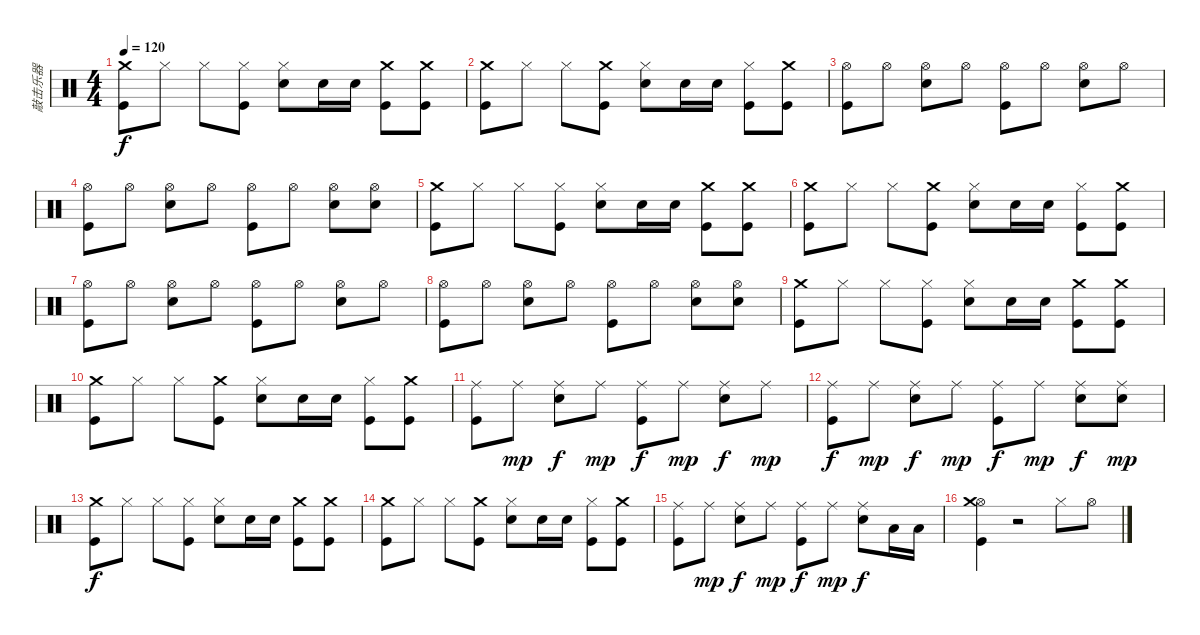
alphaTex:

\track ("敲击乐器" "敲击乐器") {instrument percussion}
\staff {score}
\articulation defaults
\ts (4 4)
\tempo 120
\clef neutral
\ks c
("Kick (hit)" "Crash medium (hit)").8{dy f} "Hi-Hat (closed)".8 "Hi-Hat (closed)".8 ("Kick (hit)" "Hi-Hat (closed)").8 ("Snare (hit) 2" "Hi-Hat (closed)").8 "Snare (hit) 2".16 "Snare (hit) 2".16 ("Kick (hit)" "Crash medium (hit)").8 ("Kick (hit)" "Crash medium (hit)").8 |
("Kick (hit)" "Crash medium (hit)").8 "Hi-Hat (closed)".8 "Hi-Hat (closed)".8 ("Kick (hit)" "Crash medium (hit)").8 ("Snare (hit) 2" "Hi-Hat (closed)").8 "Snare (hit) 2".16 "Snare (hit) 2".16 ("Kick (hit)" "Hi-Hat (closed)").8 ("Kick (hit)" "Crash medium (hit)").8 |
("Kick (hit)" "Hi-Hat (open)").8 "Hi-Hat (open)".8 ("Snare (hit) 2" "Hi-Hat (open)").8 "Hi-Hat (open)".8 ("Kick (hit)" "Hi-Hat (open)").8 "Hi-Hat (open)".8 ("Hi-Hat (open)" "Snare (hit) 2").8 "Hi-Hat (open)".8 |
("Kick (hit)" "Hi-Hat (open)").8 "Hi-Hat (open)".8 ("Snare (hit) 2" "Hi-Hat (open)").8 "Hi-Hat (open)".8 ("Kick (hit)" "Hi-Hat (open)").8 "Hi-Hat (open)".8 ("Snare (hit) 2" "Hi-Hat (open)").8 ("Hi-Hat (open)" "Snare (hit) 2").8 |
("Kick (hit)" "Crash medium (hit)").8 "Hi-Hat (closed)".8 "Hi-Hat (closed)".8 ("Kick (hit)" "Hi-Hat (closed)").8 ("Snare (hit) 2" "Hi-Hat (closed)").8 "Snare (hit) 2".16 "Snare (hit) 2".16 ("Kick (hit)" "Crash medium (hit)").8 ("Kick (hit)" "Crash medium (hit)").8 |
("Kick (hit)" "Crash medium (hit)").8 "Hi-Hat (closed)".8 "Hi-Hat (closed)".8 ("Kick (hit)" "Crash medium (hit)").8 ("Snare (hit) 2" "Hi-Hat (closed)").8 "Snare (hit) 2".16 "Snare (hit) 2".16 ("Kick (hit)" "Hi-Hat (closed)").8 ("Kick (hit)" "Crash medium (hit)").8 |
("Kick (hit)" "Hi-Hat (open)").8 "Hi-Hat (open)".8 ("Snare (hit) 2" "Hi-Hat (open)").8 "Hi-Hat (open)".8 ("Kick (hit)" "Hi-Hat (open)").8 "Hi-Hat (open)".8 ("Hi-Hat (open)" "Snare (hit) 2").8 "Hi-Hat (open)".8 |
("Kick (hit)" "Hi-Hat (open)").8 "Hi-Hat (open)".8 ("Snare (hit) 2" "Hi-Hat (open)").8 "Hi-Hat (open)".8 ("Kick (hit)" "Hi-Hat (open)").8 "Hi-Hat (open)".8 ("Snare (hit) 2" "Hi-Hat (open)").8 ("Hi-Hat (open)" "Snare (hit) 2").8 |
("Kick (hit)" "Crash medium (hit)").8 "Hi-Hat (closed)".8 "Hi-Hat (closed)".8 ("Kick (hit)" "Hi-Hat (closed)").8 ("Snare (hit) 2" "Hi-Hat (closed)").8 "Snare (hit) 2".16 "Snare (hit) 2".16 ("Kick (hit)" "Crash medium (hit)").8 ("Kick (hit)" "Crash medium (hit)").8 |
("Kick (hit)" "Crash medium (hit)").8 "Hi-Hat (closed)".8 "Hi-Hat (closed)".8 ("Kick (hit)" "Crash medium (hit)").8 ("Snare (hit) 2" "Hi-Hat (closed)").8 "Snare (hit) 2".16 "Snare (hit) 2".16 ("Kick (hit)" "Hi-Hat (closed)").8 ("Kick (hit)" "Crash medium (hit)").8 |
("Kick (hit)" "Ride (middle)").8 "Ride (middle)".8{dy mp} ("Snare (hit) 2" "Ride (middle)").8{dy f} "Ride (middle)".8{dy mp} ("Kick (hit)" "Ride (middle)").8{dy f} "Ride (middle)".8{dy mp} ("Snare (hit) 2" "Ride (middle)").8{dy f} "Ride (middle)".8{dy mp} |
("Kick (hit)" "Ride (middle)").8{dy f} "Ride (middle)".8{dy mp} ("Snare (hit) 2" "Ride (middle)").8{dy f} "Ride (middle)".8{dy mp} ("Kick (hit)" "Ride (middle)").8{dy f} "Ride (middle)".8{dy mp} ("Snare (hit) 2" "Ride (middle)").8{dy f} ("Ride (middle)" "Snare (hit) 2").8{dy mp} |
("Kick (hit)" "Crash medium (hit)").8{dy f} "Hi-Hat (closed)".8 "Hi-Hat (closed)".8 ("Kick (hit)" "Hi-Hat (closed)").8 ("Snare (hit) 2" "Hi-Hat (closed)").8 "Snare (hit) 2".16 "Snare (hit) 2".16 ("Kick (hit)" "Crash medium (hit)").8 ("Kick (hit)" "Crash medium (hit)").8 |
("Kick (hit)" "Crash medium (hit)").8 "Hi-Hat (closed)".8 "Hi-Hat (closed)".8 ("Kick (hit)" "Crash medium (hit)").8 ("Snare (hit) 2" "Hi-Hat (closed)").8 "Snare (hit) 2".16 "Snare (hit) 2".16 ("Kick (hit)" "Hi-Hat (closed)").8 ("Kick (hit)" "Crash medium (hit)").8 |
("Kick (hit)" "Ride (middle)").8 "Ride (middle)".8{dy mp} ("Snare (hit) 2" "Ride (middle)").8{dy f} "Ride (middle)".8{dy mp} ("Kick (hit)" "Ride (middle)").8{dy f} "Ride (middle)".8{dy mp} ("Snare (hit) 2" "Ride (middle)").8{dy f} "Low Tom (hit)".16 "Low Tom (hit)".16 |
("Kick (hit)" "Hi-Hat (open)" "Crash medium (hit)").4 r.2 "Hi-Hat (closed)".8 "Hi-Hat (open)".8
